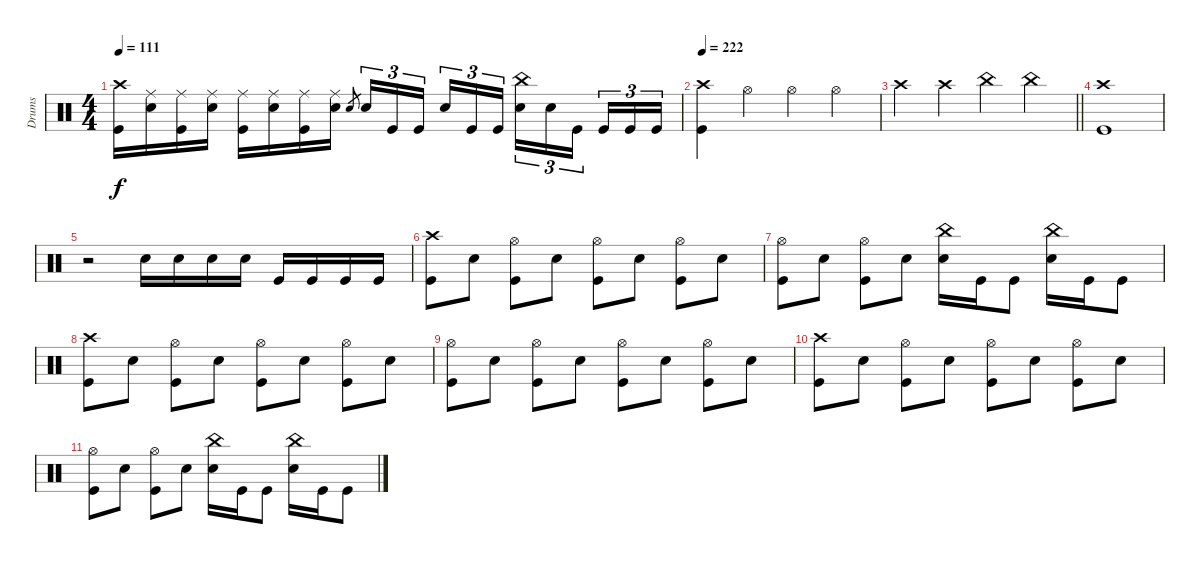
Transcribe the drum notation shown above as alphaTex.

\track ("Drums" "Drums") {instrument percussion}
\staff
\articulation defaults
\ts (4 4)
\tempo 111
\clef neutral
\ks c
("Crash high (hit)" "Kick (hit)").16{dy f} ("Ride (middle)" "Electric Snare (hit)").16 ("Ride (middle)" "Kick (hit)").16 ("Ride (middle)" "Electric Snare (hit)").16 ("Ride (middle)" "Kick (hit)").16 ("Ride (middle)" "Electric Snare (hit)").16 ("Ride (middle)" "Kick (hit)").16 ("Ride (middle)" "Electric Snare (hit)").16 "Electric Snare (hit)".8{gr} "Electric Snare (hit)".16{tu (3 2)} "Kick (hit)".16{tu (3 2)} "Kick (hit)".16{tu (3 2) beam splitsecondary} "Electric Snare (hit)".16{tu (3 2)} "Kick (hit)".16{tu (3 2)} "Kick (hit)".16{tu (3 2)} ("China (hit)" "Electric Snare (hit)").16{tu (3 2)} "Electric Snare (hit)".16{tu (3 2)} "Kick (hit)".16{tu (3 2) beam splitsecondary} "Kick (hit)".16{tu (3 2)} "Kick (hit)".16{tu (3 2)} "Kick (hit)".16{tu (3 2)} |
\tempo 222
("Crash high (hit)" "Kick (hit)").4 "Hi-Hat (open)".4 "Hi-Hat (open)".4 "Hi-Hat (open)".4 |
\barLineRight lightlight "Crash high (hit)".4 "Crash high (hit)".4 "China (hit)".4 "China (hit)".4
|
\section ("" "")
("Crash high (hit)" "Kick (hit)").1 |
r.2 "Electric Snare (hit)".16 "Electric Snare (hit)".16 "Electric Snare (hit)".16 "Electric Snare (hit)".16 "Kick (hit)".16 "Kick (hit)".16 "Kick (hit)".16 "Kick (hit)".16 |
("Crash high (hit)" "Kick (hit)").8 "Electric Snare (hit)".8 ("Hi-Hat (open)" "Kick (hit)").8 "Electric Snare (hit)".8 ("Hi-Hat (open)" "Kick (hit)").8 "Electric Snare (hit)".8 ("Hi-Hat (open)" "Kick (hit)").8 "Electric Snare (hit)".8 |
("Hi-Hat (open)" "Kick (hit)").8 "Electric Snare (hit)".8 ("Hi-Hat (open)" "Kick (hit)").8 "Electric Snare (hit)".8 ("China (hit)" "Electric Snare (hit)").16 "Kick (hit)".16 "Kick (hit)".8 ("China (hit)" "Electric Snare (hit)").16 "Kick (hit)".16 "Kick (hit)".8 |
("Crash high (hit)" "Kick (hit)").8 "Electric Snare (hit)".8 ("Hi-Hat (open)" "Kick (hit)").8 "Electric Snare (hit)".8 ("Hi-Hat (open)" "Kick (hit)").8 "Electric Snare (hit)".8 ("Hi-Hat (open)" "Kick (hit)").8 "Electric Snare (hit)".8 |
("Hi-Hat (open)" "Kick (hit)").8 "Electric Snare (hit)".8 ("Hi-Hat (open)" "Kick (hit)").8 "Electric Snare (hit)".8 ("Hi-Hat (open)" "Kick (hit)").8 "Electric Snare (hit)".8 ("Hi-Hat (open)" "Kick (hit)").8 "Electric Snare (hit)".8 |
("Crash high (hit)" "Kick (hit)").8 "Electric Snare (hit)".8 ("Hi-Hat (open)" "Kick (hit)").8 "Electric Snare (hit)".8 ("Hi-Hat (open)" "Kick (hit)").8 "Electric Snare (hit)".8 ("Hi-Hat (open)" "Kick (hit)").8 "Electric Snare (hit)".8 |
("Hi-Hat (open)" "Kick (hit)").8 "Electric Snare (hit)".8 ("Hi-Hat (open)" "Kick (hit)").8 "Electric Snare (hit)".8 ("China (hit)" "Electric Snare (hit)").16 "Kick (hit)".16 "Kick (hit)".8 ("China (hit)" "Electric Snare (hit)").16 "Kick (hit)".16 "Kick (hit)".8
